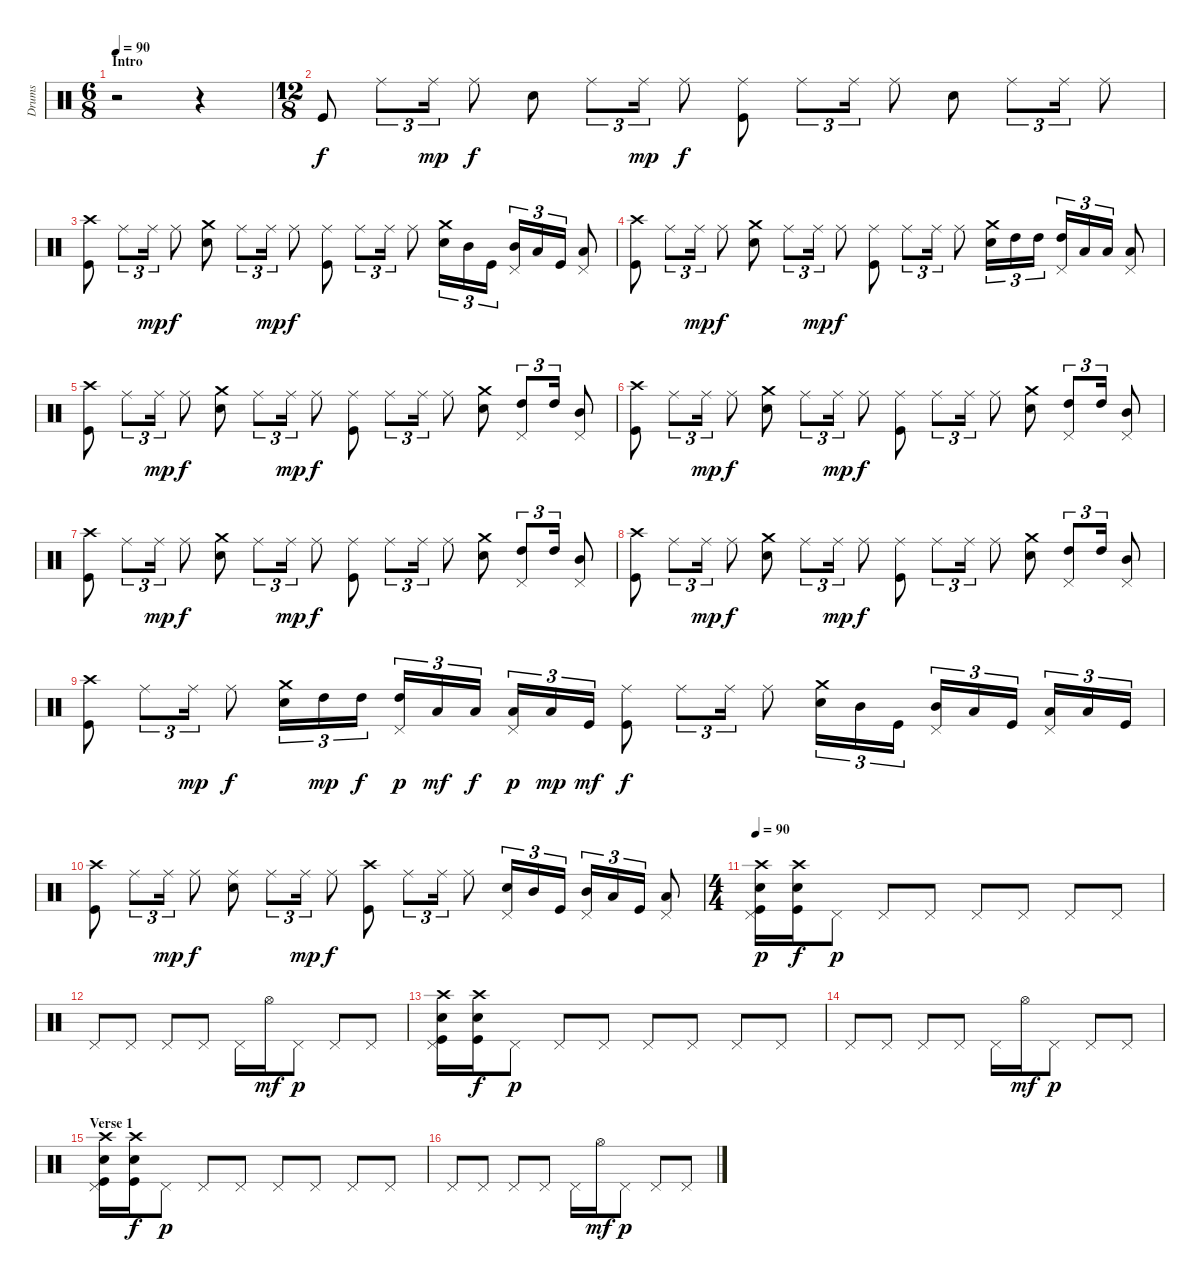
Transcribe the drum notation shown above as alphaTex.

\track ("Drums" "Drums") {instrument percussion}
\staff {score}
\articulation defaults
\ts (6 8)
\section ("" "Intro")
\tempo 90
\tempo 57
\tempo 90
\clef neutral
\ks c
r.2{dy f} r.4 |
\ts (12 8)
"Kick (hit)".8 "Ride (middle)".8{tu (3 2)} "Ride (middle)".16{tu (3 2) dy mp} "Ride (middle)".8{dy f} "Snare (hit) 2".8 "Ride (middle)".8{tu (3 2)} "Ride (middle)".16{tu (3 2) dy mp} "Ride (middle)".8{dy f} ("Ride (middle)" "Kick (hit)").8 "Ride (middle)".8{tu (3 2)} "Ride (middle)".16{tu (3 2)} "Ride (middle)".8 "Snare (hit) 2".8 "Ride (middle)".8{tu (3 2)} "Ride (middle)".16{tu (3 2)} "Ride (middle)".8 |
("Crash high (hit)" "Kick (hit)").8 "Ride (middle)".8{tu (3 2)} "Ride (middle)".16{tu (3 2) dy mp} "Ride (middle)".8{dy f} ("Crash medium (hit)" "Snare (hit) 2").8 "Ride (middle)".8{tu (3 2)} "Ride (middle)".16{tu (3 2) dy mp} "Ride (middle)".8{dy f} ("Ride (middle)" "Kick (hit)").8 "Ride (middle)".8{tu (3 2)} "Ride (middle)".16{tu (3 2)} "Ride (middle)".8 ("Crash medium (hit)" "Snare (hit) 2").16{tu (3 2)} "Mid Tom (hit)".16{tu (3 2)} "Kick (hit)".16{tu (3 2)} ("Pedal Hi-Hat (hit)" "Mid Tom (hit)").16{tu (3 2)} "Low Tom (hit)".16{tu (3 2)} "Kick (hit)".16{tu (3 2)} ("Pedal Hi-Hat (hit)" "Low Tom (hit)").8 |
("Crash high (hit)" "Kick (hit)").8 "Ride (middle)".8{tu (3 2)} "Ride (middle)".16{tu (3 2) dy mp} "Ride (middle)".8{dy f} ("Crash medium (hit)" "Snare (hit) 2").8 "Ride (middle)".8{tu (3 2)} "Ride (middle)".16{tu (3 2) dy mp} "Ride (middle)".8{dy f} ("Ride (middle)" "Kick (hit)").8 "Ride (middle)".8{tu (3 2)} "Ride (middle)".16{tu (3 2)} "Ride (middle)".8 ("Crash medium (hit)" "Snare (hit) 2").16{tu (3 2)} "High Tom (hit)".16{tu (3 2)} "High Tom (hit)".16{tu (3 2)} ("Pedal Hi-Hat (hit)" "High Tom (hit)").16{tu (3 2)} "Low Tom (hit)".16{tu (3 2)} "Low Tom (hit)".16{tu (3 2)} ("Pedal Hi-Hat (hit)" "Low Tom (hit)").8 |
("Crash high (hit)" "Kick (hit)").8 "Ride (middle)".8{tu (3 2)} "Ride (middle)".16{tu (3 2) dy mp} "Ride (middle)".8{dy f} ("Crash medium (hit)" "Snare (hit) 2").8 "Ride (middle)".8{tu (3 2)} "Ride (middle)".16{tu (3 2) dy mp} "Ride (middle)".8{dy f} ("Ride (middle)" "Kick (hit)").8 "Ride (middle)".8{tu (3 2)} "Ride (middle)".16{tu (3 2)} "Ride (middle)".8 ("Crash medium (hit)" "Snare (hit) 2").8 ("Pedal Hi-Hat (hit)" "High Tom (hit)").8{tu (3 2)} "High Tom (hit)".16{tu (3 2)} ("Pedal Hi-Hat (hit)" "Mid Tom (hit)").8 |
("Crash high (hit)" "Kick (hit)").8 "Ride (middle)".8{tu (3 2)} "Ride (middle)".16{tu (3 2) dy mp} "Ride (middle)".8{dy f} ("Crash medium (hit)" "Snare (hit) 2").8 "Ride (middle)".8{tu (3 2)} "Ride (middle)".16{tu (3 2) dy mp} "Ride (middle)".8{dy f} ("Ride (middle)" "Kick (hit)").8 "Ride (middle)".8{tu (3 2)} "Ride (middle)".16{tu (3 2)} "Ride (middle)".8 ("Crash medium (hit)" "Snare (hit) 2").8 ("Pedal Hi-Hat (hit)" "High Tom (hit)").8{tu (3 2)} "High Tom (hit)".16{tu (3 2)} ("Pedal Hi-Hat (hit)" "Mid Tom (hit)").8 |
("Crash high (hit)" "Kick (hit)").8 "Ride (middle)".8{tu (3 2)} "Ride (middle)".16{tu (3 2) dy mp} "Ride (middle)".8{dy f} ("Crash medium (hit)" "Snare (hit) 2").8 "Ride (middle)".8{tu (3 2)} "Ride (middle)".16{tu (3 2) dy mp} "Ride (middle)".8{dy f} ("Ride (middle)" "Kick (hit)").8 "Ride (middle)".8{tu (3 2)} "Ride (middle)".16{tu (3 2)} "Ride (middle)".8 ("Crash medium (hit)" "Snare (hit) 2").8 ("Pedal Hi-Hat (hit)" "High Tom (hit)").8{tu (3 2)} "High Tom (hit)".16{tu (3 2)} ("Pedal Hi-Hat (hit)" "Mid Tom (hit)").8 |
("Crash high (hit)" "Kick (hit)").8 "Ride (middle)".8{tu (3 2)} "Ride (middle)".16{tu (3 2) dy mp} "Ride (middle)".8{dy f} ("Crash medium (hit)" "Snare (hit) 2").8 "Ride (middle)".8{tu (3 2)} "Ride (middle)".16{tu (3 2) dy mp} "Ride (middle)".8{dy f} ("Ride (middle)" "Kick (hit)").8 "Ride (middle)".8{tu (3 2)} "Ride (middle)".16{tu (3 2)} "Ride (middle)".8 ("Crash medium (hit)" "Snare (hit) 2").8 ("Pedal Hi-Hat (hit)" "High Tom (hit)").8{tu (3 2)} "High Tom (hit)".16{tu (3 2)} ("Pedal Hi-Hat (hit)" "Mid Tom (hit)").8 |
("Crash high (hit)" "Kick (hit)").8 "Ride (middle)".8{tu (3 2)} "Ride (middle)".16{tu (3 2) dy mp} "Ride (middle)".8{dy f} ("Crash medium (hit)" "Snare (hit) 2").16{tu (3 2)} "High Tom (hit)".16{tu (3 2) dy mp} "High Tom (hit)".16{tu (3 2) dy f} ("Pedal Hi-Hat (hit)" "High Tom (hit)").16{tu (3 2) dy p} "Low Tom (hit)".16{tu (3 2) dy mf} "Low Tom (hit)".16{tu (3 2) dy f} ("Pedal Hi-Hat (hit)" "Low Tom (hit)").16{tu (3 2) dy p} "Low Tom (hit)".16{tu (3 2) dy mp} "Kick (hit)".16{tu (3 2) dy mf} ("Ride (middle)" "Kick (hit)").8{dy f} "Ride (middle)".8{tu (3 2)} "Ride (middle)".16{tu (3 2)} "Ride (middle)".8 ("Crash medium (hit)" "Snare (hit) 2").16{tu (3 2)} "Mid Tom (hit)".16{tu (3 2)} "Kick (hit)".16{tu (3 2)} ("Pedal Hi-Hat (hit)" "Mid Tom (hit)").16{tu (3 2)} "Low Tom (hit)".16{tu (3 2)} "Kick (hit)".16{tu (3 2)} ("Pedal Hi-Hat (hit)" "Low Tom (hit)").16{tu (3 2)} "Low Tom (hit)".16{tu (3 2)} "Kick (hit)".16{tu (3 2)} |
("Crash high (hit)" "Kick (hit)").8 "Ride (middle)".8{tu (3 2)} "Ride (middle)".16{tu (3 2) dy mp} "Ride (middle)".8{dy f} ("Ride (middle)" "Snare (hit) 2").8 "Ride (middle)".8{tu (3 2)} "Ride (middle)".16{tu (3 2) dy mp} "Ride (middle)".8{dy f} ("Crash high (hit)" "Kick (hit)").8 "Ride (middle)".8{tu (3 2)} "Ride (middle)".16{tu (3 2)} "Ride (middle)".8 ("Pedal Hi-Hat (hit)" "Snare (hit) 2").16{tu (3 2)} "Mid Tom (hit)".16{tu (3 2)} "Kick (hit)".16{tu (3 2)} ("Pedal Hi-Hat (hit)" "Mid Tom (hit)").16{tu (3 2)} "Low Tom (hit)".16{tu (3 2)} "Kick (hit)".16{tu (3 2)} ("Pedal Hi-Hat (hit)" "Low Tom (hit)").8 |
\ts (4 4)
\tempo 90
("Crash high (hit)" "Pedal Hi-Hat (hit)" "Snare (hit) 2" "Kick (hit)").16{dy p} ("Crash high (hit)" "Snare (hit) 2" "Kick (hit)").16{dy f} "Pedal Hi-Hat (hit)".8{dy p} "Pedal Hi-Hat (hit)".8 "Pedal Hi-Hat (hit)".8 "Pedal Hi-Hat (hit)".8 "Pedal Hi-Hat (hit)".8 "Pedal Hi-Hat (hit)".8 "Pedal Hi-Hat (hit)".8 |
"Pedal Hi-Hat (hit)".8 "Pedal Hi-Hat (hit)".8 "Pedal Hi-Hat (hit)".8 "Pedal Hi-Hat (hit)".8 "Pedal Hi-Hat (hit)".16 "Hi-Hat (open)".16{dy mf} "Pedal Hi-Hat (hit)".8{dy p} "Pedal Hi-Hat (hit)".8 "Pedal Hi-Hat (hit)".8 |
("Crash high (hit)" "Pedal Hi-Hat (hit)" "Snare (hit) 2" "Kick (hit)").16 ("Crash high (hit)" "Snare (hit) 2" "Kick (hit)").16{dy f} "Pedal Hi-Hat (hit)".8{dy p} "Pedal Hi-Hat (hit)".8 "Pedal Hi-Hat (hit)".8 "Pedal Hi-Hat (hit)".8 "Pedal Hi-Hat (hit)".8 "Pedal Hi-Hat (hit)".8 "Pedal Hi-Hat (hit)".8 |
"Pedal Hi-Hat (hit)".8 "Pedal Hi-Hat (hit)".8 "Pedal Hi-Hat (hit)".8 "Pedal Hi-Hat (hit)".8 "Pedal Hi-Hat (hit)".16 "Hi-Hat (open)".16{dy mf} "Pedal Hi-Hat (hit)".8{dy p} "Pedal Hi-Hat (hit)".8 "Pedal Hi-Hat (hit)".8 |
\section ("" "Verse 1")
("Crash high (hit)" "Pedal Hi-Hat (hit)" "Snare (hit) 2" "Kick (hit)").16 ("Crash high (hit)" "Snare (hit) 2" "Kick (hit)").16{dy f} "Pedal Hi-Hat (hit)".8{dy p} "Pedal Hi-Hat (hit)".8 "Pedal Hi-Hat (hit)".8 "Pedal Hi-Hat (hit)".8 "Pedal Hi-Hat (hit)".8 "Pedal Hi-Hat (hit)".8 "Pedal Hi-Hat (hit)".8 |
"Pedal Hi-Hat (hit)".8 "Pedal Hi-Hat (hit)".8 "Pedal Hi-Hat (hit)".8 "Pedal Hi-Hat (hit)".8 "Pedal Hi-Hat (hit)".16 "Hi-Hat (open)".16{dy mf} "Pedal Hi-Hat (hit)".8{dy p} "Pedal Hi-Hat (hit)".8 "Pedal Hi-Hat (hit)".8
